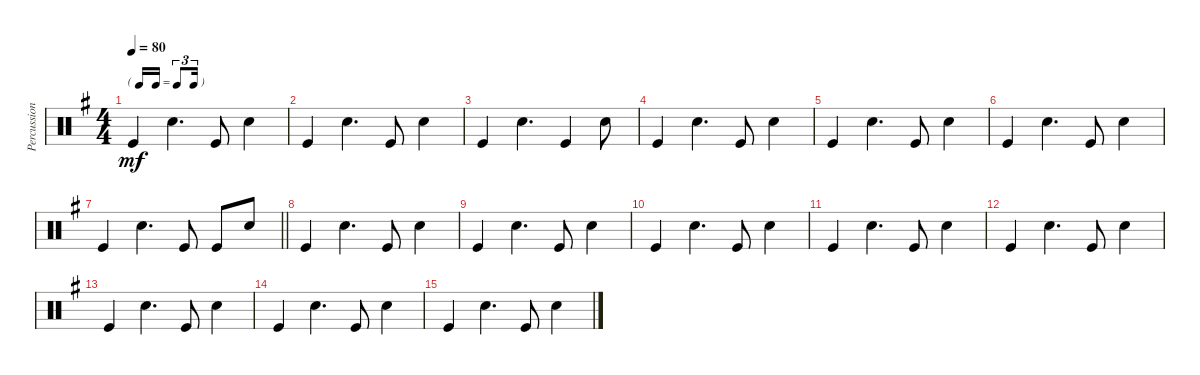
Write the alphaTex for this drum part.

\track ("Percussion" "Percussion") {instrument percussion}
\staff {score}
\articulation defaults
\ts (4 4)
\tf triplet16th
\tempo 80
\clef neutral
\ks eminor "Kick (hit)".4{dy mf} "Snare (hit) 2".4{d} "Kick (hit)".8 "Snare (hit) 2".4
|
"Kick (hit)".4 "Snare (hit) 2".4{d} "Kick (hit)".8 "Snare (hit) 2".4 |
"Kick (hit)".4 "Snare (hit) 2".4{d} "Kick (hit)".4 "Snare (hit) 2".8 |
"Kick (hit)".4 "Snare (hit) 2".4{d} "Kick (hit)".8 "Snare (hit) 2".4 |
"Kick (hit)".4 "Snare (hit) 2".4{d} "Kick (hit)".8 "Snare (hit) 2".4 |
"Kick (hit)".4 "Snare (hit) 2".4{d} "Kick (hit)".8 "Snare (hit) 2".4 |
\barLineRight lightlight "Kick (hit)".4 "Snare (hit) 2".4{d} "Kick (hit)".8 "Kick (hit)".8 "Snare (hit) 2".8
|
"Kick (hit)".4 "Snare (hit) 2".4{d} "Kick (hit)".8 "Snare (hit) 2".4 |
"Kick (hit)".4 "Snare (hit) 2".4{d} "Kick (hit)".8 "Snare (hit) 2".4 |
"Kick (hit)".4 "Snare (hit) 2".4{d} "Kick (hit)".8 "Snare (hit) 2".4 |
"Kick (hit)".4 "Snare (hit) 2".4{d} "Kick (hit)".8 "Snare (hit) 2".4 |
"Kick (hit)".4 "Snare (hit) 2".4{d} "Kick (hit)".8 "Snare (hit) 2".4 |
"Kick (hit)".4 "Snare (hit) 2".4{d} "Kick (hit)".8 "Snare (hit) 2".4 |
"Kick (hit)".4 "Snare (hit) 2".4{d} "Kick (hit)".8 "Snare (hit) 2".4 |
"Kick (hit)".4 "Snare (hit) 2".4{d} "Kick (hit)".8 "Snare (hit) 2".4
